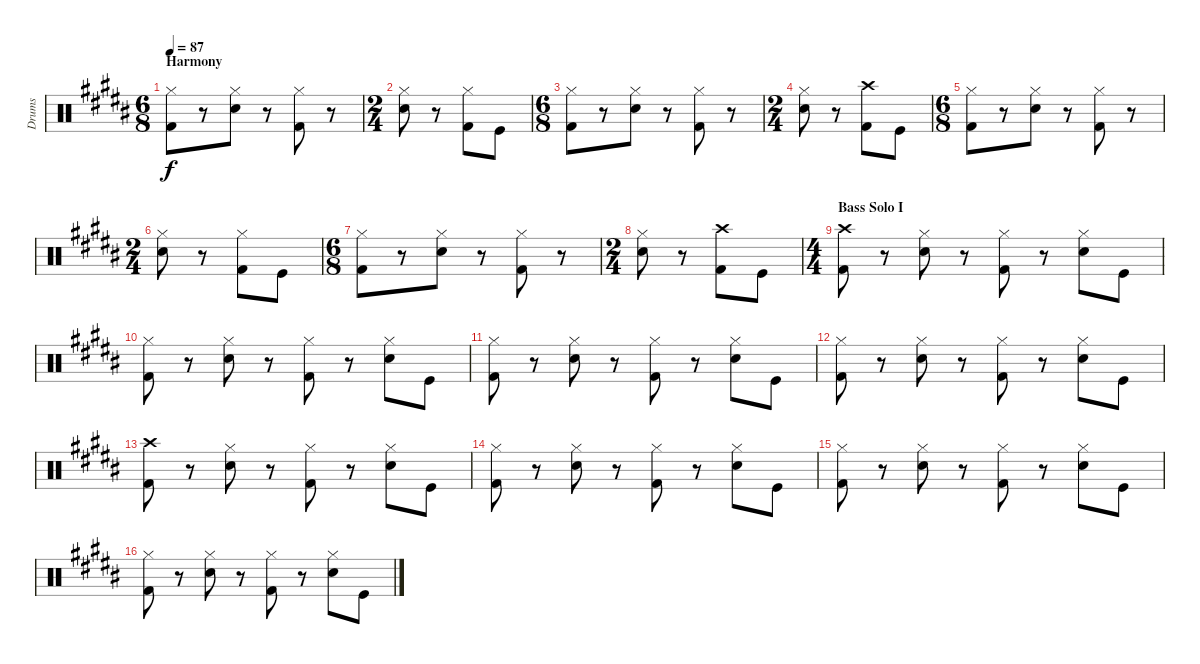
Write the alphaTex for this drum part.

\track ("Drums" "Drums") {instrument percussion}
\staff {score}
\articulation defaults
\ts (6 8)
\section ("" "Harmony")
\tempo 87
\clef neutral
\ks b
("Hi-Hat (closed)" "Kick (hit) 2").8{dy f} r.8 ("Hi-Hat (closed)" "Snare (hit) 2").8 r.8 ("Hi-Hat (closed)" "Kick (hit) 2").8 r.8 |
\ts (2 4)
("Hi-Hat (closed)" "Snare (hit) 2").8 r.8 ("Hi-Hat (closed)" "Kick (hit) 2").8 "Kick (hit)".8 |
\ts (6 8)
("Hi-Hat (closed)" "Kick (hit) 2").8 r.8 ("Hi-Hat (closed)" "Snare (hit) 2").8 r.8 ("Hi-Hat (closed)" "Kick (hit) 2").8 r.8 |
\ts (2 4)
("Hi-Hat (closed)" "Snare (hit) 2").8 r.8 ("Crash high (hit)" "Kick (hit) 2").8 "Kick (hit)".8 |
\ts (6 8)
("Hi-Hat (closed)" "Kick (hit) 2").8 r.8 ("Hi-Hat (closed)" "Snare (hit) 2").8 r.8 ("Hi-Hat (closed)" "Kick (hit) 2").8 r.8 |
\ts (2 4)
("Hi-Hat (closed)" "Snare (hit) 2").8 r.8 ("Hi-Hat (closed)" "Kick (hit) 2").8 "Kick (hit)".8 |
\ts (6 8)
("Hi-Hat (closed)" "Kick (hit) 2").8 r.8 ("Hi-Hat (closed)" "Snare (hit) 2").8 r.8 ("Hi-Hat (closed)" "Kick (hit) 2").8 r.8 |
\ts (2 4)
("Hi-Hat (closed)" "Snare (hit) 2").8 r.8 ("Crash high (hit)" "Kick (hit) 2").8 "Kick (hit)".8 |
\ts (4 4)
\section ("" "Bass Solo I")
("Crash high (hit)" "Kick (hit) 2").8 r.8 ("Hi-Hat (closed)" "Snare (hit) 2").8 r.8 ("Hi-Hat (closed)" "Kick (hit) 2").8 r.8 ("Hi-Hat (closed)" "Snare (hit) 2").8 "Kick (hit)".8 |
("Hi-Hat (closed)" "Kick (hit) 2").8 r.8 ("Hi-Hat (closed)" "Snare (hit) 2").8 r.8 ("Hi-Hat (closed)" "Kick (hit) 2").8 r.8 ("Hi-Hat (closed)" "Snare (hit) 2").8 "Kick (hit)".8 |
("Hi-Hat (closed)" "Kick (hit) 2").8 r.8 ("Hi-Hat (closed)" "Snare (hit) 2").8 r.8 ("Hi-Hat (closed)" "Kick (hit) 2").8 r.8 ("Hi-Hat (closed)" "Snare (hit) 2").8 "Kick (hit)".8 |
("Hi-Hat (closed)" "Kick (hit) 2").8 r.8 ("Hi-Hat (closed)" "Snare (hit) 2").8 r.8 ("Hi-Hat (closed)" "Kick (hit) 2").8 r.8 ("Hi-Hat (closed)" "Snare (hit) 2").8 "Kick (hit)".8 |
("Crash high (hit)" "Kick (hit) 2").8 r.8 ("Hi-Hat (closed)" "Snare (hit) 2").8 r.8 ("Hi-Hat (closed)" "Kick (hit) 2").8 r.8 ("Hi-Hat (closed)" "Snare (hit) 2").8 "Kick (hit)".8 |
("Hi-Hat (closed)" "Kick (hit) 2").8 r.8 ("Hi-Hat (closed)" "Snare (hit) 2").8 r.8 ("Hi-Hat (closed)" "Kick (hit) 2").8 r.8 ("Hi-Hat (closed)" "Snare (hit) 2").8 "Kick (hit)".8 |
("Hi-Hat (closed)" "Kick (hit) 2").8 r.8 ("Hi-Hat (closed)" "Snare (hit) 2").8 r.8 ("Hi-Hat (closed)" "Kick (hit) 2").8 r.8 ("Hi-Hat (closed)" "Snare (hit) 2").8 "Kick (hit)".8 |
("Hi-Hat (closed)" "Kick (hit) 2").8 r.8 ("Hi-Hat (closed)" "Snare (hit) 2").8 r.8 ("Hi-Hat (closed)" "Kick (hit) 2").8 r.8 ("Hi-Hat (closed)" "Snare (hit) 2").8 "Kick (hit)".8
